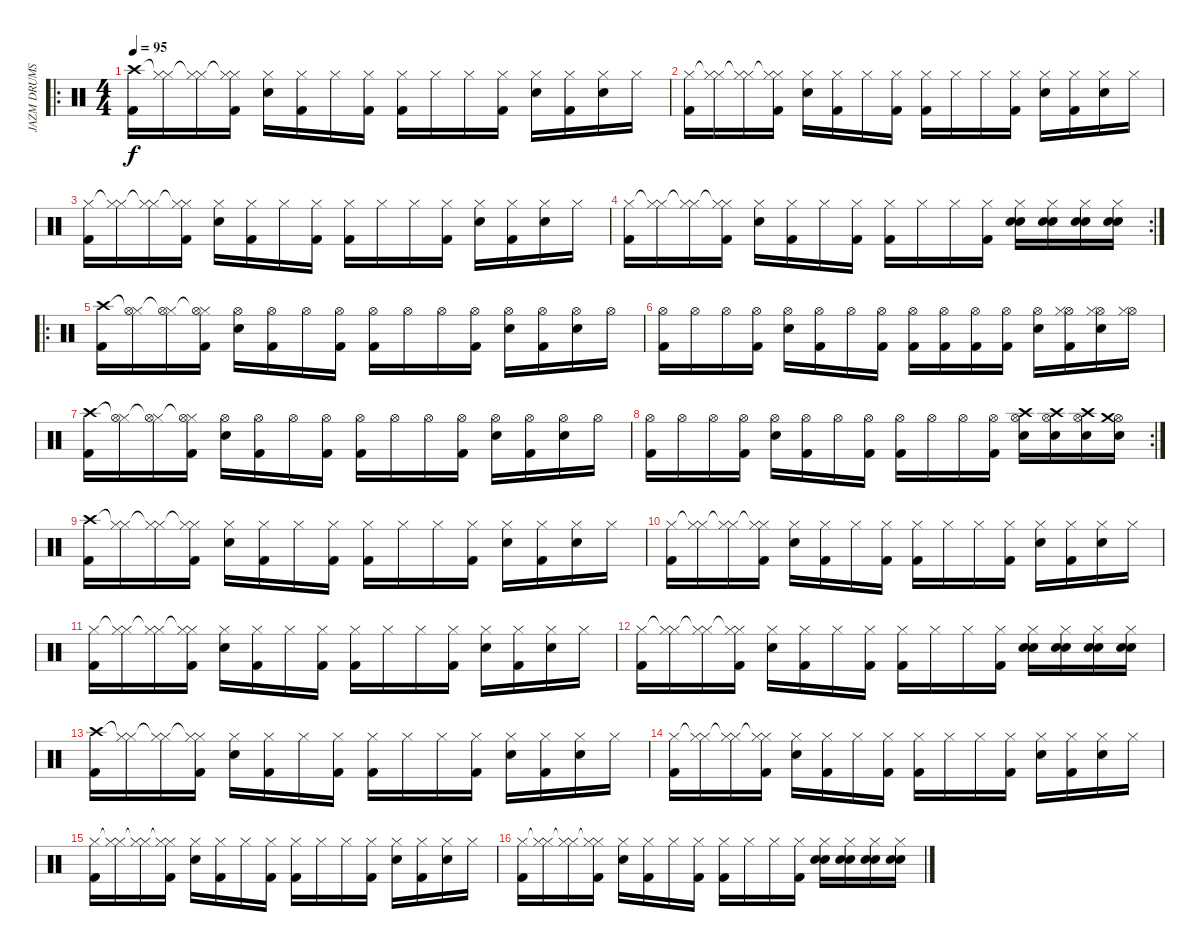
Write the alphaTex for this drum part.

\track ("JAZM DRUMS" "JAZM DRUMS") {instrument percussion}
\staff {score}
\articulation defaults
\ro
\ts (4 4)
\tempo 95
\clef neutral
\ks c
("Crash high (hit)" "Kick (hit) 2").16{dy f} ("Hi-Hat (closed)"{t} "Hi-Hat (closed)").16 ("Hi-Hat (closed)"{t} "Hi-Hat (closed)").16 ("Hi-Hat (closed)"{t} "Hi-Hat (closed)" "Kick (hit) 2").16 ("Hi-Hat (closed)" "Electric Snare (hit)").16 ("Hi-Hat (closed)" "Kick (hit) 2").16 "Hi-Hat (closed)".16 ("Hi-Hat (closed)" "Kick (hit) 2").16 ("Hi-Hat (closed)" "Kick (hit) 2").16 "Hi-Hat (closed)".16 "Hi-Hat (closed)".16 ("Hi-Hat (closed)" "Kick (hit) 2").16 ("Hi-Hat (closed)" "Electric Snare (hit)").16 ("Hi-Hat (closed)" "Kick (hit) 2").16 ("Hi-Hat (closed)" "Electric Snare (hit)").16 "Hi-Hat (closed)".16 |
("Hi-Hat (closed)" "Kick (hit) 2").16 ("Hi-Hat (closed)"{t} "Hi-Hat (closed)").16 ("Hi-Hat (closed)"{t} "Hi-Hat (closed)").16 ("Hi-Hat (closed)"{t} "Hi-Hat (closed)" "Kick (hit) 2").16 ("Hi-Hat (closed)" "Electric Snare (hit)").16 ("Hi-Hat (closed)" "Kick (hit) 2").16 "Hi-Hat (closed)".16 ("Hi-Hat (closed)" "Kick (hit) 2").16 ("Hi-Hat (closed)" "Kick (hit) 2").16 "Hi-Hat (closed)".16 "Hi-Hat (closed)".16 ("Hi-Hat (closed)" "Kick (hit) 2").16 ("Hi-Hat (closed)" "Electric Snare (hit)").16 ("Hi-Hat (closed)" "Kick (hit) 2").16 ("Hi-Hat (closed)" "Electric Snare (hit)").16 "Hi-Hat (closed)".16 |
("Hi-Hat (closed)" "Kick (hit) 2").16 ("Hi-Hat (closed)"{t} "Hi-Hat (closed)").16 ("Hi-Hat (closed)"{t} "Hi-Hat (closed)").16 ("Hi-Hat (closed)"{t} "Hi-Hat (closed)" "Kick (hit) 2").16 ("Hi-Hat (closed)" "Electric Snare (hit)").16 ("Hi-Hat (closed)" "Kick (hit) 2").16 "Hi-Hat (closed)".16 ("Hi-Hat (closed)" "Kick (hit) 2").16 ("Hi-Hat (closed)" "Kick (hit) 2").16 "Hi-Hat (closed)".16 "Hi-Hat (closed)".16 ("Hi-Hat (closed)" "Kick (hit) 2").16 ("Hi-Hat (closed)" "Electric Snare (hit)").16 ("Hi-Hat (closed)" "Kick (hit) 2").16 ("Hi-Hat (closed)" "Electric Snare (hit)").16 "Hi-Hat (closed)".16 |
\rc 2
("Hi-Hat (closed)" "Kick (hit) 2").16 ("Hi-Hat (closed)"{t} "Hi-Hat (closed)").16 ("Hi-Hat (closed)"{t} "Hi-Hat (closed)").16 ("Hi-Hat (closed)"{t} "Hi-Hat (closed)" "Kick (hit) 2").16 ("Hi-Hat (closed)" "Electric Snare (hit)").16 ("Hi-Hat (closed)" "Kick (hit) 2").16 "Hi-Hat (closed)".16 ("Hi-Hat (closed)" "Kick (hit) 2").16 ("Hi-Hat (closed)" "Kick (hit) 2").16 "Hi-Hat (closed)".16 "Hi-Hat (closed)".16 ("Hi-Hat (closed)" "Kick (hit) 2").16 ("Hi-Hat (closed)" "Electric Snare (hit)" "Electric Snare (hit)").16 ("Hi-Hat (closed)" "Electric Snare (hit)" "Electric Snare (hit)").16 ("Hi-Hat (closed)" "Electric Snare (hit)" "Electric Snare (hit)").16 ("Hi-Hat (closed)" "Electric Snare (hit)" "Electric Snare (hit)").16 |
\ro
("Crash high (hit)" "Kick (hit) 2").16 ("Hi-Hat (closed)"{t} "Hi-Hat (open)").16 ("Hi-Hat (closed)"{t} "Hi-Hat (open)").16 ("Hi-Hat (closed)"{t} "Hi-Hat (open)" "Kick (hit) 2").16 ("Hi-Hat (open)" "Electric Snare (hit)").16 ("Hi-Hat (open)" "Kick (hit) 2").16 "Hi-Hat (open)".16 ("Hi-Hat (open)" "Kick (hit) 2").16 ("Hi-Hat (open)" "Kick (hit) 2").16 "Hi-Hat (open)".16 "Hi-Hat (open)".16 ("Hi-Hat (open)" "Kick (hit) 2").16 ("Hi-Hat (open)" "Electric Snare (hit)").16 ("Hi-Hat (open)" "Kick (hit) 2").16 ("Hi-Hat (open)" "Electric Snare (hit)").16 "Hi-Hat (open)".16 |
("Hi-Hat (open)" "Kick (hit) 2").16 "Hi-Hat (open)".16 "Hi-Hat (open)".16 ("Hi-Hat (open)" "Kick (hit) 2").16 ("Hi-Hat (open)" "Electric Snare (hit)").16 ("Hi-Hat (open)" "Kick (hit) 2").16 "Hi-Hat (open)".16 ("Hi-Hat (open)" "Kick (hit) 2").16 ("Hi-Hat (open)" "Kick (hit) 2").16 ("Hi-Hat (open)" "Kick (hit) 2").16 ("Hi-Hat (open)" "Kick (hit) 2").16 ("Hi-Hat (open)" "Kick (hit) 2").16 ("Hi-Hat (open)" "Electric Snare (hit)").16 ("Hi-Hat (open)" "Hi-Hat (closed)" "Kick (hit) 2").16 ("Hi-Hat (open)" "Hi-Hat (closed)" "Electric Snare (hit)").16 ("Hi-Hat (open)" "Hi-Hat (closed)").16 |
("Crash high (hit)" "Kick (hit) 2").16 ("Hi-Hat (closed)"{t} "Hi-Hat (open)").16 ("Hi-Hat (closed)"{t} "Hi-Hat (open)").16 ("Hi-Hat (closed)"{t} "Hi-Hat (open)" "Kick (hit) 2").16 ("Hi-Hat (open)" "Electric Snare (hit)").16 ("Hi-Hat (open)" "Kick (hit) 2").16 "Hi-Hat (open)".16 ("Hi-Hat (open)" "Kick (hit) 2").16 ("Hi-Hat (open)" "Kick (hit) 2").16 "Hi-Hat (open)".16 "Hi-Hat (open)".16 ("Hi-Hat (open)" "Kick (hit) 2").16 ("Hi-Hat (open)" "Electric Snare (hit)").16 ("Hi-Hat (open)" "Kick (hit) 2").16 ("Hi-Hat (open)" "Electric Snare (hit)").16 "Hi-Hat (open)".16 |
\rc 2
("Hi-Hat (open)" "Kick (hit) 2").16 "Hi-Hat (open)".16 "Hi-Hat (open)".16 ("Hi-Hat (open)" "Kick (hit) 2").16 ("Hi-Hat (open)" "Electric Snare (hit)").16 ("Hi-Hat (open)" "Kick (hit) 2").16 "Hi-Hat (open)".16 ("Hi-Hat (open)" "Kick (hit) 2").16 ("Hi-Hat (open)" "Kick (hit) 2").16 "Hi-Hat (open)".16 "Hi-Hat (open)".16 ("Hi-Hat (open)" "Kick (hit) 2").16 ("Hi-Hat (open)" "Crash high (hit)" "Electric Snare (hit)").16 ("Hi-Hat (open)" "Crash high (hit)" "Electric Snare (hit)").16 ("Hi-Hat (open)" "Crash high (hit)" "Electric Snare (hit)").16 ("Hi-Hat (open)" "Crash medium (hit)" "Electric Snare (hit)").16 |
("Crash high (hit)" "Kick (hit) 2").16 ("Hi-Hat (closed)"{t} "Hi-Hat (closed)").16 ("Hi-Hat (closed)"{t} "Hi-Hat (closed)").16 ("Hi-Hat (closed)"{t} "Hi-Hat (closed)" "Kick (hit) 2").16 ("Hi-Hat (closed)" "Electric Snare (hit)").16 ("Hi-Hat (closed)" "Kick (hit) 2").16 "Hi-Hat (closed)".16 ("Hi-Hat (closed)" "Kick (hit) 2").16 ("Hi-Hat (closed)" "Kick (hit) 2").16 "Hi-Hat (closed)".16 "Hi-Hat (closed)".16 ("Hi-Hat (closed)" "Kick (hit) 2").16 ("Hi-Hat (closed)" "Electric Snare (hit)").16 ("Hi-Hat (closed)" "Kick (hit) 2").16 ("Hi-Hat (closed)" "Electric Snare (hit)").16 "Hi-Hat (closed)".16 |
("Hi-Hat (closed)" "Kick (hit) 2").16 ("Hi-Hat (closed)"{t} "Hi-Hat (closed)").16 ("Hi-Hat (closed)"{t} "Hi-Hat (closed)").16 ("Hi-Hat (closed)"{t} "Hi-Hat (closed)" "Kick (hit) 2").16 ("Hi-Hat (closed)" "Electric Snare (hit)").16 ("Hi-Hat (closed)" "Kick (hit) 2").16 "Hi-Hat (closed)".16 ("Hi-Hat (closed)" "Kick (hit) 2").16 ("Hi-Hat (closed)" "Kick (hit) 2").16 "Hi-Hat (closed)".16 "Hi-Hat (closed)".16 ("Hi-Hat (closed)" "Kick (hit) 2").16 ("Hi-Hat (closed)" "Electric Snare (hit)").16 ("Hi-Hat (closed)" "Kick (hit) 2").16 ("Hi-Hat (closed)" "Electric Snare (hit)").16 "Hi-Hat (closed)".16 |
("Hi-Hat (closed)" "Kick (hit) 2").16 ("Hi-Hat (closed)"{t} "Hi-Hat (closed)").16 ("Hi-Hat (closed)"{t} "Hi-Hat (closed)").16 ("Hi-Hat (closed)"{t} "Hi-Hat (closed)" "Kick (hit) 2").16 ("Hi-Hat (closed)" "Electric Snare (hit)").16 ("Hi-Hat (closed)" "Kick (hit) 2").16 "Hi-Hat (closed)".16 ("Hi-Hat (closed)" "Kick (hit) 2").16 ("Hi-Hat (closed)" "Kick (hit) 2").16 "Hi-Hat (closed)".16 "Hi-Hat (closed)".16 ("Hi-Hat (closed)" "Kick (hit) 2").16 ("Hi-Hat (closed)" "Electric Snare (hit)").16 ("Hi-Hat (closed)" "Kick (hit) 2").16 ("Hi-Hat (closed)" "Electric Snare (hit)").16 "Hi-Hat (closed)".16 |
("Hi-Hat (closed)" "Kick (hit) 2").16 ("Hi-Hat (closed)"{t} "Hi-Hat (closed)").16 ("Hi-Hat (closed)"{t} "Hi-Hat (closed)").16 ("Hi-Hat (closed)"{t} "Hi-Hat (closed)" "Kick (hit) 2").16 ("Hi-Hat (closed)" "Electric Snare (hit)").16 ("Hi-Hat (closed)" "Kick (hit) 2").16 "Hi-Hat (closed)".16 ("Hi-Hat (closed)" "Kick (hit) 2").16 ("Hi-Hat (closed)" "Kick (hit) 2").16 "Hi-Hat (closed)".16 "Hi-Hat (closed)".16 ("Hi-Hat (closed)" "Kick (hit) 2").16 ("Hi-Hat (closed)" "Electric Snare (hit)" "Electric Snare (hit)").16 ("Hi-Hat (closed)" "Electric Snare (hit)" "Electric Snare (hit)").16 ("Hi-Hat (closed)" "Electric Snare (hit)" "Electric Snare (hit)").16 ("Hi-Hat (closed)" "Electric Snare (hit)" "Electric Snare (hit)").16 |
("Crash high (hit)" "Kick (hit) 2").16 ("Hi-Hat (closed)"{t} "Hi-Hat (closed)").16 ("Hi-Hat (closed)"{t} "Hi-Hat (closed)").16 ("Hi-Hat (closed)"{t} "Hi-Hat (closed)" "Kick (hit) 2").16 ("Hi-Hat (closed)" "Electric Snare (hit)").16 ("Hi-Hat (closed)" "Kick (hit) 2").16 "Hi-Hat (closed)".16 ("Hi-Hat (closed)" "Kick (hit) 2").16 ("Hi-Hat (closed)" "Kick (hit) 2").16 "Hi-Hat (closed)".16 "Hi-Hat (closed)".16 ("Hi-Hat (closed)" "Kick (hit) 2").16 ("Hi-Hat (closed)" "Electric Snare (hit)").16 ("Hi-Hat (closed)" "Kick (hit) 2").16 ("Hi-Hat (closed)" "Electric Snare (hit)").16 "Hi-Hat (closed)".16 |
("Hi-Hat (closed)" "Kick (hit) 2").16 ("Hi-Hat (closed)"{t} "Hi-Hat (closed)").16 ("Hi-Hat (closed)"{t} "Hi-Hat (closed)").16 ("Hi-Hat (closed)"{t} "Hi-Hat (closed)" "Kick (hit) 2").16 ("Hi-Hat (closed)" "Electric Snare (hit)").16 ("Hi-Hat (closed)" "Kick (hit) 2").16 "Hi-Hat (closed)".16 ("Hi-Hat (closed)" "Kick (hit) 2").16 ("Hi-Hat (closed)" "Kick (hit) 2").16 "Hi-Hat (closed)".16 "Hi-Hat (closed)".16 ("Hi-Hat (closed)" "Kick (hit) 2").16 ("Hi-Hat (closed)" "Electric Snare (hit)").16 ("Hi-Hat (closed)" "Kick (hit) 2").16 ("Hi-Hat (closed)" "Electric Snare (hit)").16 "Hi-Hat (closed)".16 |
("Hi-Hat (closed)" "Kick (hit) 2").16 ("Hi-Hat (closed)"{t} "Hi-Hat (closed)").16 ("Hi-Hat (closed)"{t} "Hi-Hat (closed)").16 ("Hi-Hat (closed)"{t} "Hi-Hat (closed)" "Kick (hit) 2").16 ("Hi-Hat (closed)" "Electric Snare (hit)").16 ("Hi-Hat (closed)" "Kick (hit) 2").16 "Hi-Hat (closed)".16 ("Hi-Hat (closed)" "Kick (hit) 2").16 ("Hi-Hat (closed)" "Kick (hit) 2").16 "Hi-Hat (closed)".16 "Hi-Hat (closed)".16 ("Hi-Hat (closed)" "Kick (hit) 2").16 ("Hi-Hat (closed)" "Electric Snare (hit)").16 ("Hi-Hat (closed)" "Kick (hit) 2").16 ("Hi-Hat (closed)" "Electric Snare (hit)").16 "Hi-Hat (closed)".16 |
("Hi-Hat (closed)" "Kick (hit) 2").16 ("Hi-Hat (closed)"{t} "Hi-Hat (closed)").16 ("Hi-Hat (closed)"{t} "Hi-Hat (closed)").16 ("Hi-Hat (closed)"{t} "Hi-Hat (closed)" "Kick (hit) 2").16 ("Hi-Hat (closed)" "Electric Snare (hit)").16 ("Hi-Hat (closed)" "Kick (hit) 2").16 "Hi-Hat (closed)".16 ("Hi-Hat (closed)" "Kick (hit) 2").16 ("Hi-Hat (closed)" "Kick (hit) 2").16 "Hi-Hat (closed)".16 "Hi-Hat (closed)".16 ("Hi-Hat (closed)" "Kick (hit) 2").16 ("Hi-Hat (closed)" "Electric Snare (hit)" "Electric Snare (hit)").16 ("Hi-Hat (closed)" "Electric Snare (hit)" "Electric Snare (hit)").16 ("Hi-Hat (closed)" "Electric Snare (hit)" "Electric Snare (hit)").16 ("Hi-Hat (closed)" "Electric Snare (hit)" "Electric Snare (hit)").16
